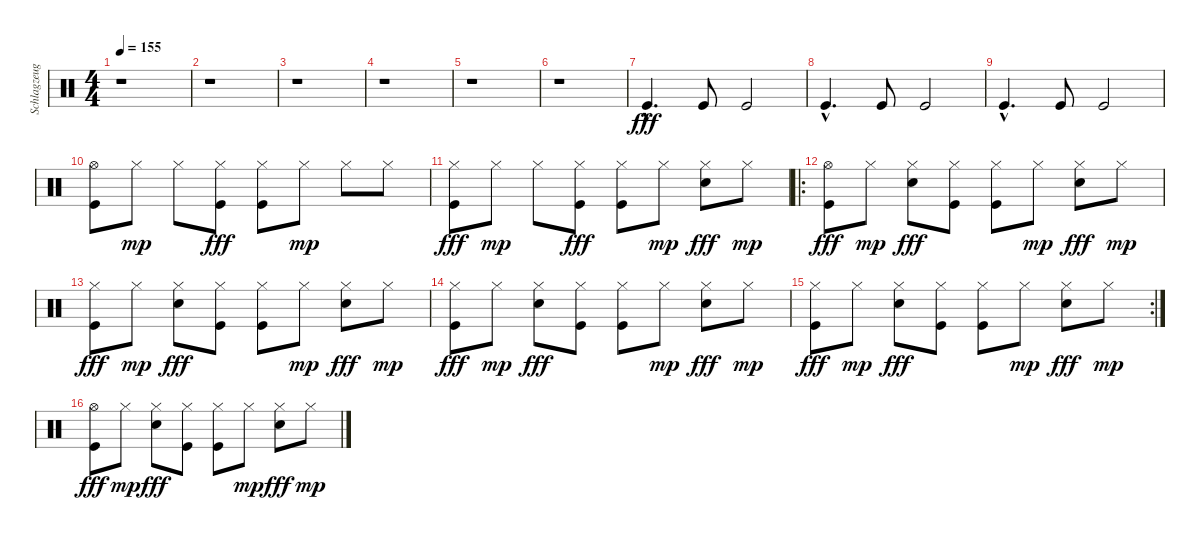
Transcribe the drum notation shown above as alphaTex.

\track ("Schlagzeug" "Schlagzeug") {instrument percussion}
\staff {score}
\articulation defaults
\ts (4 4)
\tempo 155
\clef neutral
\ks c
r.1{dy fff} |
r.1 |
r.1 |
r.1 |
r.1 |
r.1 |
"Kick (hit)"{hac}.4{d} "Kick (hit)".8 "Kick (hit)".2 |
"Kick (hit)"{hac}.4{d} "Kick (hit)".8 "Kick (hit)".2 |
"Kick (hit)"{hac}.4{d} "Kick (hit)".8 "Kick (hit)".2 |
("Hi-Hat (open)" "Kick (hit)").8 "Hi-Hat (closed)".8{dy mp} "Hi-Hat (closed)".8 ("Hi-Hat (closed)" "Kick (hit)").8{dy fff} ("Hi-Hat (closed)" "Kick (hit)").8 "Hi-Hat (closed)".8{dy mp} "Hi-Hat (closed)".8 "Hi-Hat (closed)".8 |
("Hi-Hat (closed)" "Kick (hit)").8{dy fff} "Hi-Hat (closed)".8{dy mp} "Hi-Hat (closed)".8 ("Hi-Hat (closed)" "Kick (hit)").8{dy fff} ("Hi-Hat (closed)" "Kick (hit)").8 "Hi-Hat (closed)".8{dy mp} ("Hi-Hat (closed)" "Electric Snare (hit)").8{dy fff} "Hi-Hat (closed)".8{dy mp} |
\ro
("Hi-Hat (open)" "Kick (hit)").8{dy fff} "Hi-Hat (closed)".8{dy mp} ("Hi-Hat (closed)" "Electric Snare (hit)").8{dy fff} ("Hi-Hat (closed)" "Kick (hit)").8 ("Hi-Hat (closed)" "Kick (hit)").8 "Hi-Hat (closed)".8{dy mp} ("Hi-Hat (closed)" "Electric Snare (hit)").8{dy fff} "Hi-Hat (closed)".8{dy mp} |
("Hi-Hat (closed)" "Kick (hit)").8{dy fff} "Hi-Hat (closed)".8{dy mp} ("Hi-Hat (closed)" "Electric Snare (hit)").8{dy fff} ("Hi-Hat (closed)" "Kick (hit)").8 ("Hi-Hat (closed)" "Kick (hit)").8 "Hi-Hat (closed)".8{dy mp} ("Hi-Hat (closed)" "Electric Snare (hit)").8{dy fff} "Hi-Hat (closed)".8{dy mp} |
("Hi-Hat (closed)" "Kick (hit)").8{dy fff} "Hi-Hat (closed)".8{dy mp} ("Hi-Hat (closed)" "Electric Snare (hit)").8{dy fff} ("Hi-Hat (closed)" "Kick (hit)").8 ("Hi-Hat (closed)" "Kick (hit)").8 "Hi-Hat (closed)".8{dy mp} ("Hi-Hat (closed)" "Electric Snare (hit)").8{dy fff} "Hi-Hat (closed)".8{dy mp} |
\rc 2
("Hi-Hat (closed)" "Kick (hit)").8{dy fff} "Hi-Hat (closed)".8{dy mp} ("Hi-Hat (closed)" "Electric Snare (hit)").8{dy fff} ("Hi-Hat (closed)" "Kick (hit)").8 ("Hi-Hat (closed)" "Kick (hit)").8 "Hi-Hat (closed)".8{dy mp} ("Hi-Hat (closed)" "Electric Snare (hit)").8{dy fff} "Hi-Hat (closed)".8{dy mp} |
("Hi-Hat (open)" "Kick (hit)").8{dy fff} "Hi-Hat (closed)".8{dy mp} ("Hi-Hat (closed)" "Electric Snare (hit)").8{dy fff} ("Hi-Hat (closed)" "Kick (hit)").8 ("Hi-Hat (closed)" "Kick (hit)").8 "Hi-Hat (closed)".8{dy mp} ("Hi-Hat (closed)" "Electric Snare (hit)").8{dy fff} "Hi-Hat (closed)".8{dy mp}
